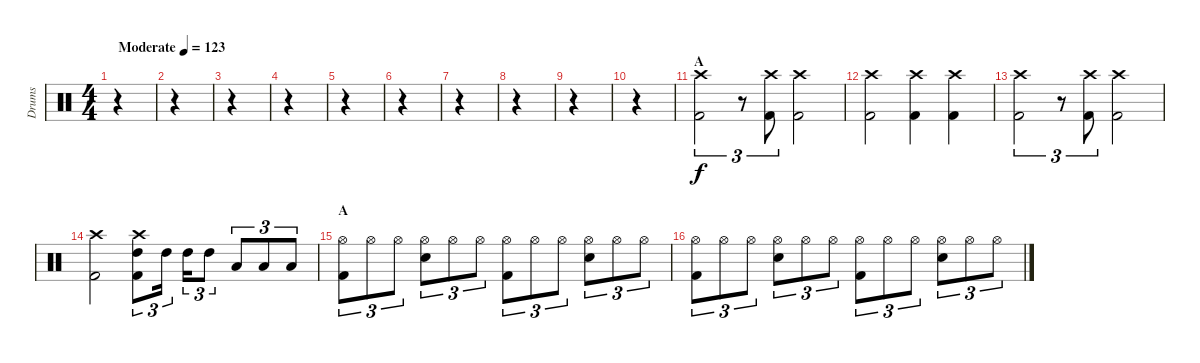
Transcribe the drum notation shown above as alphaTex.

\track ("Drums" "Drums") {instrument percussion}
\staff {score}
\articulation defaults
\ts (4 4)
\tempo (123 "Moderate")
\clef neutral
\ks c
r.4{dy f} |
r.4 |
r.4 |
r.4 |
r.4 |
r.4 |
r.4 |
r.4 |
r.4 |
r.4 |
\section ("" "A")
("Crash high (hit)" "Kick (hit) 2").2{tu (3 2)} r.8{tu (3 2)} ("Crash high (hit)" "Kick (hit) 2").8{tu (3 2)} ("Crash high (hit)" "Kick (hit) 2").2 |
("Crash high (hit)" "Kick (hit) 2").2 ("Crash high (hit)" "Kick (hit) 2").4 ("Crash high (hit)" "Kick (hit) 2").4 |
("Crash high (hit)" "Kick (hit) 2").2{tu (3 2)} r.8{tu (3 2)} ("Crash high (hit)" "Kick (hit) 2").8{tu (3 2)} ("Crash high (hit)" "Kick (hit) 2").2 |
("Crash high (hit)" "Kick (hit) 2").2 ("Crash high (hit)" "High Tom (hit)" "Kick (hit) 2").8{tu (3 2)} "High Tom (hit)".16{tu (3 2)} "High Tom (hit)".16{tu (3 2)} "High Tom (hit)".8{tu (3 2)} "Low Tom (hit)".8{tu (3 2)} "Low Tom (hit)".8{tu (3 2)} "Low Tom (hit)".8{tu (3 2)} |
\section ("" "A")
("Hi-Hat (open)" "Kick (hit) 2").8{tu (3 2)} "Hi-Hat (open)".8{tu (3 2)} "Hi-Hat (open)".8{tu (3 2)} ("Hi-Hat (open)" "Snare (hit) 2").8{tu (3 2)} "Hi-Hat (open)".8{tu (3 2)} "Hi-Hat (open)".8{tu (3 2)} ("Hi-Hat (open)" "Kick (hit) 2").8{tu (3 2)} "Hi-Hat (open)".8{tu (3 2)} "Hi-Hat (open)".8{tu (3 2)} ("Hi-Hat (open)" "Snare (hit) 2").8{tu (3 2)} "Hi-Hat (open)".8{tu (3 2)} "Hi-Hat (open)".8{tu (3 2)} |
("Hi-Hat (open)" "Kick (hit) 2").8{tu (3 2)} "Hi-Hat (open)".8{tu (3 2)} "Hi-Hat (open)".8{tu (3 2)} ("Hi-Hat (open)" "Snare (hit) 2").8{tu (3 2)} "Hi-Hat (open)".8{tu (3 2)} "Hi-Hat (open)".8{tu (3 2)} ("Hi-Hat (open)" "Kick (hit) 2").8{tu (3 2)} "Hi-Hat (open)".8{tu (3 2)} "Hi-Hat (open)".8{tu (3 2)} ("Hi-Hat (open)" "Snare (hit) 2").8{tu (3 2)} "Hi-Hat (open)".8{tu (3 2)} "Hi-Hat (open)".8{tu (3 2)}
